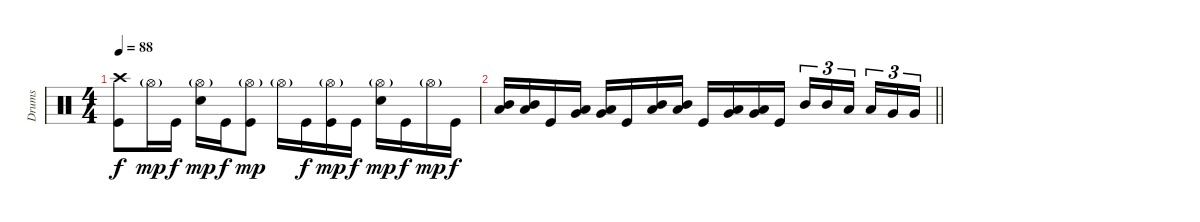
\track ("Drums" "Drums") {instrument percussion}
\staff
\articulation defaults
\ts (4 4)
\tempo 88
\clef neutral
\ks c
("Crash high (hit)" "Kick (hit)").8{dy f} "Hi-Hat (open)"{g}.16{dy mp} "Kick (hit)".16{dy f} ("Hi-Hat (open)"{g} "Electric Snare (hit)").16{dy mp} "Kick (hit)".16{dy f} ("Hi-Hat (open)"{g} "Kick (hit)").8{dy mp} "Hi-Hat (open)"{g}.16 "Kick (hit)".16{dy f} ("Hi-Hat (open)"{g} "Kick (hit)").16{dy mp} "Kick (hit)".16{dy f} ("Hi-Hat (open)"{g} "Electric Snare (hit)").16{dy mp} "Kick (hit)".16{dy f} "Hi-Hat (open)"{g}.16{dy mp} "Kick (hit)".16{dy f} |
\barLineRight lightlight
("Mid Tom (hit)" "Low Tom (hit)").16 ("Mid Tom (hit)" "Low Tom (hit)").16 "Kick (hit)".16 ("Low Tom (hit)" "Very Low Tom (hit)").16 ("Low Tom (hit)" "Very Low Tom (hit)").16 "Kick (hit)".16 ("Mid Tom (hit)" "Low Tom (hit)").16 ("Mid Tom (hit)" "Low Tom (hit)").16 "Kick (hit)".16 ("Low Tom (hit)" "Very Low Tom (hit)").16 ("Low Tom (hit)" "Very Low Tom (hit)").16 "Kick (hit)".16 "Mid Tom (hit)".16{tu (3 2)} "Mid Tom (hit)".16{tu (3 2)} "Low Tom (hit)".16{tu (3 2) beam splitsecondary} "Low Tom (hit)".16{tu (3 2)} "Very Low Tom (hit)".16{tu (3 2)} "Very Low Tom (hit)".16{tu (3 2)}
